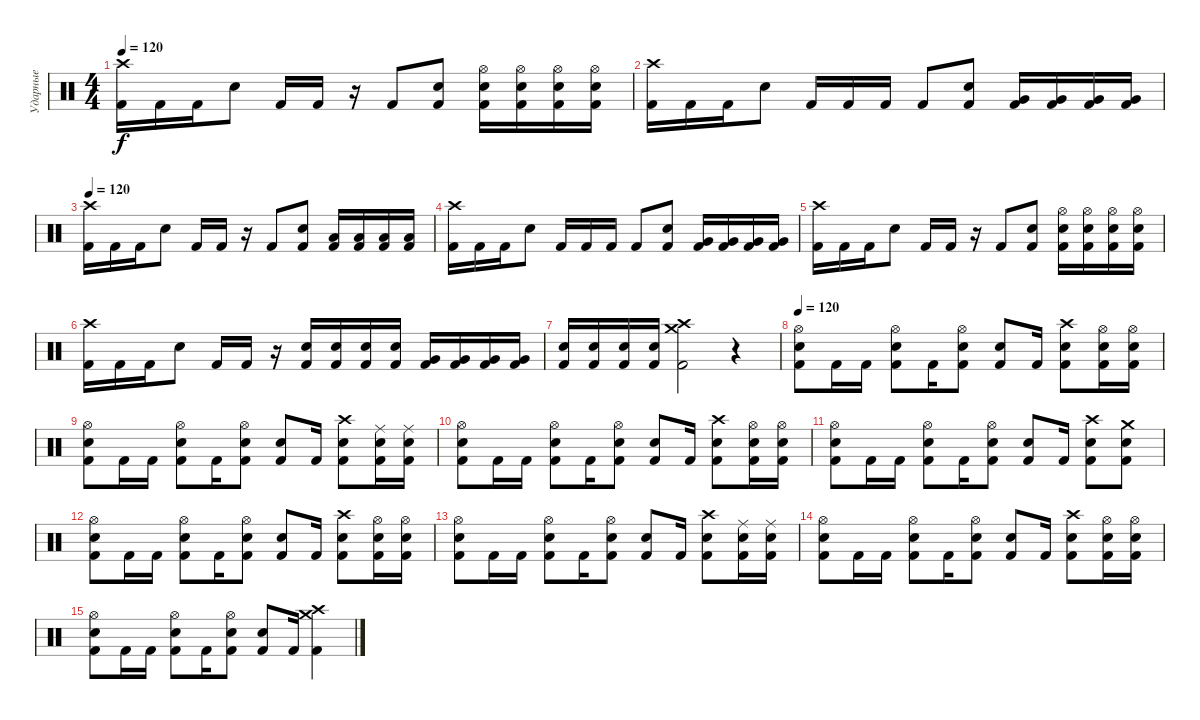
\track ("Ударные" "Ударные") {instrument percussion}
\staff {score}
\articulation defaults
\ts (4 4)
\tempo 120
\clef neutral
\ks c
("Crash high (hit)" "Kick (hit) 2").16{dy f} "Kick (hit) 2".16 "Kick (hit) 2".16 "Electric Snare (hit)".8 "Kick (hit) 2".16 "Kick (hit) 2".16 r.16 "Kick (hit) 2".8 ("Electric Snare (hit)" "Kick (hit) 2").8 ("Hi-Hat (open)" "Electric Snare (hit)" "Kick (hit) 2").16 ("Hi-Hat (open)" "Electric Snare (hit)" "Kick (hit) 2").16 ("Hi-Hat (open)" "Electric Snare (hit)" "Kick (hit) 2").16 ("Hi-Hat (open)" "Electric Snare (hit)" "Kick (hit) 2").16 |
("Crash high (hit)" "Kick (hit) 2").16 "Kick (hit) 2".16 "Kick (hit) 2".16 "Electric Snare (hit)".8 "Kick (hit) 2".16 "Kick (hit) 2".16 "Kick (hit) 2".16 "Kick (hit) 2".8 ("Electric Snare (hit)" "Kick (hit) 2").8 ("Very Low Tom (hit)" "Kick (hit) 2").16 ("Very Low Tom (hit)" "Kick (hit) 2").16 ("Very Low Tom (hit)" "Kick (hit) 2").16 ("Very Low Tom (hit)" "Kick (hit) 2").16 |
\tempo 120
("Crash high (hit)" "Kick (hit) 2").16 "Kick (hit) 2".16 "Kick (hit) 2".16 "Electric Snare (hit)".8 "Kick (hit) 2".16 "Kick (hit) 2".16 r.16 "Kick (hit) 2".8 ("Electric Snare (hit)" "Kick (hit) 2").8 ("Low Tom (hit)" "Kick (hit) 2").16 ("Low Tom (hit)" "Kick (hit) 2").16 ("Low Tom (hit)" "Kick (hit) 2").16 ("Low Tom (hit)" "Kick (hit) 2").16 |
("Crash high (hit)" "Kick (hit) 2").16 "Kick (hit) 2".16 "Kick (hit) 2".16 "Electric Snare (hit)".8 "Kick (hit) 2".16 "Kick (hit) 2".16 "Kick (hit) 2".16 "Kick (hit) 2".8 ("Electric Snare (hit)" "Kick (hit) 2").8 ("Very Low Tom (hit)" "Kick (hit) 2").16 ("Very Low Tom (hit)" "Kick (hit) 2").16 ("Very Low Tom (hit)" "Kick (hit) 2").16 ("Very Low Tom (hit)" "Kick (hit) 2").16 |
("Crash high (hit)" "Kick (hit) 2").16 "Kick (hit) 2".16 "Kick (hit) 2".16 "Electric Snare (hit)".8 "Kick (hit) 2".16 "Kick (hit) 2".16 r.16 "Kick (hit) 2".8 ("Electric Snare (hit)" "Kick (hit) 2").8 ("Hi-Hat (open)" "Electric Snare (hit)" "Kick (hit) 2").16 ("Hi-Hat (open)" "Electric Snare (hit)" "Kick (hit) 2").16 ("Hi-Hat (open)" "Electric Snare (hit)" "Kick (hit) 2").16 ("Hi-Hat (open)" "Electric Snare (hit)" "Kick (hit) 2").16 |
("Crash high (hit)" "Kick (hit) 2").16 "Kick (hit) 2".16 "Kick (hit) 2".16 "Electric Snare (hit)".8 "Kick (hit) 2".16 "Kick (hit) 2".16 r.16 ("Electric Snare (hit)" "Kick (hit) 2").16 ("Electric Snare (hit)" "Kick (hit) 2").16 ("Electric Snare (hit)" "Kick (hit) 2").16 ("Electric Snare (hit)" "Kick (hit) 2").16 ("Very Low Tom (hit)" "Kick (hit) 2").16 ("Very Low Tom (hit)" "Kick (hit) 2").16 ("Very Low Tom (hit)" "Kick (hit) 2").16 ("Very Low Tom (hit)" "Kick (hit) 2").16 |
("Electric Snare (hit)" "Kick (hit) 2").16 ("Electric Snare (hit)" "Kick (hit) 2").16 ("Electric Snare (hit)" "Kick (hit) 2").16 ("Electric Snare (hit)" "Kick (hit) 2").16 ("Crash high (hit)" "Crash medium (hit)" "Kick (hit) 2").2 r.4 |
\tempo 120
("Hi-Hat (open)" "Electric Snare (hit)" "Kick (hit) 2").8 "Kick (hit) 2".16 "Kick (hit) 2".16 ("Hi-Hat (open)" "Electric Snare (hit)" "Kick (hit) 2").8 "Kick (hit) 2".16 ("Hi-Hat (open)" "Electric Snare (hit)" "Kick (hit) 2").8 ("Electric Snare (hit)" "Kick (hit) 2").8 "Kick (hit) 2".16 ("Crash high (hit)" "Electric Snare (hit)" "Kick (hit) 2").8 ("Hi-Hat (open)" "Electric Snare (hit)" "Kick (hit) 2").16 ("Hi-Hat (open)" "Electric Snare (hit)" "Kick (hit) 2").16 |
("Hi-Hat (open)" "Electric Snare (hit)" "Kick (hit) 2").8 "Kick (hit) 2".16 "Kick (hit) 2".16 ("Hi-Hat (open)" "Electric Snare (hit)" "Kick (hit) 2").8 "Kick (hit) 2".16 ("Hi-Hat (open)" "Electric Snare (hit)" "Kick (hit) 2").8 ("Electric Snare (hit)" "Kick (hit) 2").8 "Kick (hit) 2".16 ("Crash high (hit)" "Electric Snare (hit)" "Kick (hit) 2").8 ("Ride (middle)" "Electric Snare (hit)" "Kick (hit) 2").16 ("Ride (middle)" "Electric Snare (hit)" "Kick (hit) 2").16 |
("Hi-Hat (open)" "Electric Snare (hit)" "Kick (hit) 2").8 "Kick (hit) 2".16 "Kick (hit) 2".16 ("Hi-Hat (open)" "Electric Snare (hit)" "Kick (hit) 2").8 "Kick (hit) 2".16 ("Hi-Hat (open)" "Electric Snare (hit)" "Kick (hit) 2").8 ("Electric Snare (hit)" "Kick (hit) 2").8 "Kick (hit) 2".16 ("Crash high (hit)" "Electric Snare (hit)" "Kick (hit) 2").8 ("Hi-Hat (open)" "Electric Snare (hit)" "Kick (hit) 2").16 ("Hi-Hat (open)" "Electric Snare (hit)" "Kick (hit) 2").16 |
("Hi-Hat (open)" "Electric Snare (hit)" "Kick (hit) 2").8 "Kick (hit) 2".16 "Kick (hit) 2".16 ("Hi-Hat (open)" "Electric Snare (hit)" "Kick (hit) 2").8 "Kick (hit) 2".16 ("Hi-Hat (open)" "Electric Snare (hit)" "Kick (hit) 2").8 ("Electric Snare (hit)" "Kick (hit) 2").8 "Kick (hit) 2".16 ("Crash high (hit)" "Electric Snare (hit)" "Kick (hit) 2").8 ("Crash medium (hit)" "Electric Snare (hit)" "Kick (hit) 2").8 |
("Hi-Hat (open)" "Electric Snare (hit)" "Kick (hit) 2").8 "Kick (hit) 2".16 "Kick (hit) 2".16 ("Hi-Hat (open)" "Electric Snare (hit)" "Kick (hit) 2").8 "Kick (hit) 2".16 ("Hi-Hat (open)" "Electric Snare (hit)" "Kick (hit) 2").8 ("Electric Snare (hit)" "Kick (hit) 2").8 "Kick (hit) 2".16 ("Crash high (hit)" "Electric Snare (hit)" "Kick (hit) 2").8 ("Hi-Hat (open)" "Electric Snare (hit)" "Kick (hit) 2").16 ("Hi-Hat (open)" "Electric Snare (hit)" "Kick (hit) 2").16 |
("Hi-Hat (open)" "Electric Snare (hit)" "Kick (hit) 2").8 "Kick (hit) 2".16 "Kick (hit) 2".16 ("Hi-Hat (open)" "Electric Snare (hit)" "Kick (hit) 2").8 "Kick (hit) 2".16 ("Hi-Hat (open)" "Electric Snare (hit)" "Kick (hit) 2").8 ("Electric Snare (hit)" "Kick (hit) 2").8 "Kick (hit) 2".16 ("Crash high (hit)" "Electric Snare (hit)" "Kick (hit) 2").8 ("Ride (middle)" "Electric Snare (hit)" "Kick (hit) 2").16 ("Ride (middle)" "Electric Snare (hit)" "Kick (hit) 2").16 |
("Hi-Hat (open)" "Electric Snare (hit)" "Kick (hit) 2").8 "Kick (hit) 2".16 "Kick (hit) 2".16 ("Hi-Hat (open)" "Electric Snare (hit)" "Kick (hit) 2").8 "Kick (hit) 2".16 ("Hi-Hat (open)" "Electric Snare (hit)" "Kick (hit) 2").8 ("Electric Snare (hit)" "Kick (hit) 2").8 "Kick (hit) 2".16 ("Crash high (hit)" "Electric Snare (hit)" "Kick (hit) 2").8 ("Hi-Hat (open)" "Electric Snare (hit)" "Kick (hit) 2").16 ("Hi-Hat (open)" "Electric Snare (hit)" "Kick (hit) 2").16 |
("Hi-Hat (open)" "Electric Snare (hit)" "Kick (hit) 2").8 "Kick (hit) 2".16 "Kick (hit) 2".16 ("Hi-Hat (open)" "Electric Snare (hit)" "Kick (hit) 2").8 "Kick (hit) 2".16 ("Hi-Hat (open)" "Electric Snare (hit)" "Kick (hit) 2").8 ("Electric Snare (hit)" "Kick (hit) 2").8 "Kick (hit) 2".16 ("Crash high (hit)" "Crash medium (hit)" "Kick (hit) 2").4
